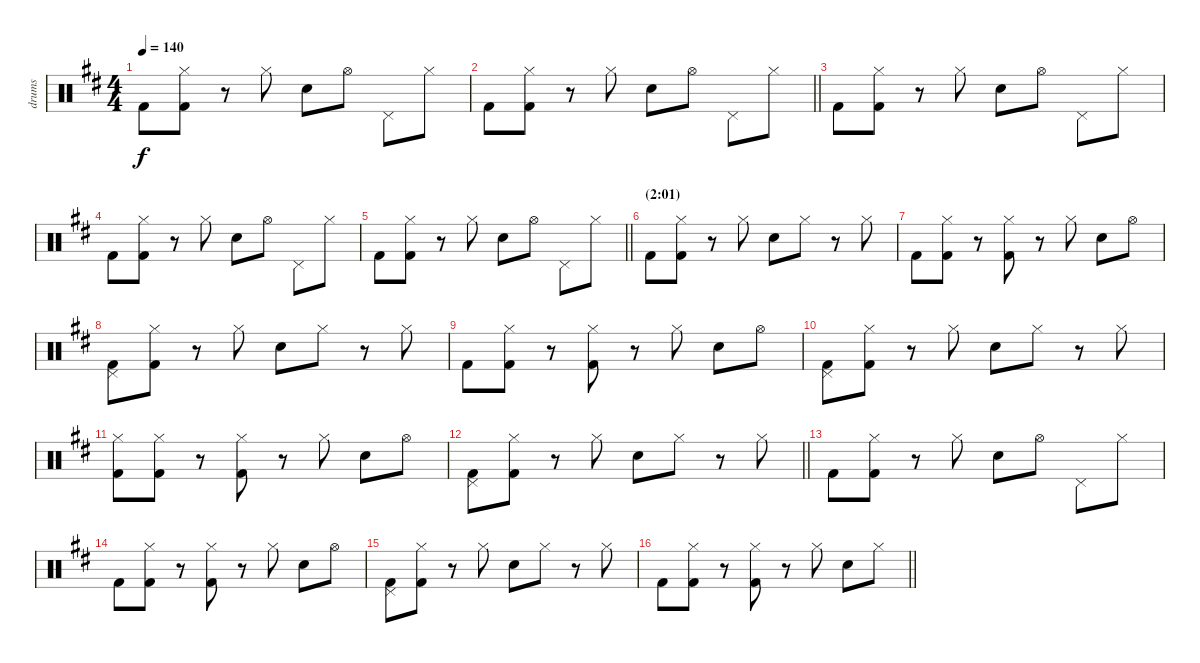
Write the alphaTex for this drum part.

\track ("drums" "drums") {instrument percussion}
\staff {score}
\articulation defaults
\ts (4 4)
\tempo 140
\clef neutral
\ks d "Kick (hit) 2".8{dy f}
("Hi-Hat (closed)" "Kick (hit) 2").8 r.8 "Hi-Hat (closed)".8 "Electric Snare (hit)".8 "Hi-Hat (open)".8 "Pedal Hi-Hat (hit)".8 "Hi-Hat (closed)".8 |
\barLineRight lightlight "Kick (hit) 2".8
("Hi-Hat (closed)" "Kick (hit) 2").8 r.8 "Hi-Hat (closed)".8 "Electric Snare (hit)".8 "Hi-Hat (open)".8 "Pedal Hi-Hat (hit)".8 "Hi-Hat (closed)".8 |
"Kick (hit) 2".8 ("Hi-Hat (closed)" "Kick (hit) 2").8 r.8 "Hi-Hat (closed)".8 "Electric Snare (hit)".8 "Hi-Hat (open)".8 "Pedal Hi-Hat (hit)".8 "Hi-Hat (closed)".8 |
"Kick (hit) 2".8 ("Hi-Hat (closed)" "Kick (hit) 2").8 r.8 "Hi-Hat (closed)".8 "Electric Snare (hit)".8 "Hi-Hat (open)".8 "Pedal Hi-Hat (hit)".8 "Hi-Hat (closed)".8 |
\barLineRight lightlight "Kick (hit) 2".8
("Hi-Hat (closed)" "Kick (hit) 2").8 r.8 "Hi-Hat (closed)".8 "Electric Snare (hit)".8 "Hi-Hat (open)".8 "Pedal Hi-Hat (hit)".8 "Hi-Hat (closed)".8 |
\section ("" "(2:01)")
"Kick (hit) 2".8 ("Hi-Hat (closed)" "Kick (hit) 2").8 r.8 "Hi-Hat (closed)".8 "Electric Snare (hit)".8 "Hi-Hat (closed)".8 r.8 "Hi-Hat (closed)".8 |
"Kick (hit) 2".8 ("Hi-Hat (closed)" "Kick (hit) 2").8 r.8 ("Hi-Hat (closed)" "Kick (hit) 2").8 r.8 "Hi-Hat (closed)".8 "Electric Snare (hit)".8 "Hi-Hat (open)".8 |
("Pedal Hi-Hat (hit)" "Kick (hit) 2").8 ("Hi-Hat (closed)" "Kick (hit) 2").8 r.8 "Hi-Hat (closed)".8 "Electric Snare (hit)".8 "Hi-Hat (closed)".8 r.8 "Hi-Hat (closed)".8 |
"Kick (hit) 2".8 ("Hi-Hat (closed)" "Kick (hit) 2").8 r.8 ("Hi-Hat (closed)" "Kick (hit) 2").8 r.8 "Hi-Hat (closed)".8 "Electric Snare (hit)".8 "Hi-Hat (open)".8 |
("Pedal Hi-Hat (hit)" "Kick (hit) 2").8 ("Hi-Hat (closed)" "Kick (hit) 2").8 r.8 "Hi-Hat (closed)".8 "Electric Snare (hit)".8 "Hi-Hat (closed)".8 r.8 "Hi-Hat (closed)".8 |
("Hi-Hat (closed)" "Kick (hit) 2").8 ("Hi-Hat (closed)" "Kick (hit) 2").8 r.8 ("Hi-Hat (closed)" "Kick (hit) 2").8 r.8 "Hi-Hat (closed)".8 "Electric Snare (hit)".8 "Hi-Hat (open)".8 |
\barLineRight lightlight
("Pedal Hi-Hat (hit)" "Kick (hit) 2").8 ("Hi-Hat (closed)" "Kick (hit) 2").8 r.8 "Hi-Hat (closed)".8 "Electric Snare (hit)".8 "Hi-Hat (closed)".8 r.8 "Hi-Hat (closed)".8 |
"Kick (hit) 2".8 ("Hi-Hat (closed)" "Kick (hit) 2").8 r.8 "Hi-Hat (closed)".8 "Electric Snare (hit)".8 "Hi-Hat (open)".8 "Pedal Hi-Hat (hit)".8 "Hi-Hat (closed)".8 |
"Kick (hit) 2".8 ("Hi-Hat (closed)" "Kick (hit) 2").8 r.8 ("Hi-Hat (closed)" "Kick (hit) 2").8 r.8 "Hi-Hat (closed)".8 "Electric Snare (hit)".8 "Hi-Hat (open)".8 |
("Pedal Hi-Hat (hit)" "Kick (hit) 2").8 ("Hi-Hat (closed)" "Kick (hit) 2").8 r.8 "Hi-Hat (closed)".8 "Electric Snare (hit)".8 "Hi-Hat (closed)".8 r.8 "Hi-Hat (closed)".8 |
\barLineRight lightlight "Kick (hit) 2".8
("Hi-Hat (closed)" "Kick (hit) 2").8 r.8 ("Hi-Hat (closed)" "Kick (hit) 2").8 r.8 "Hi-Hat (closed)".8 "Electric Snare (hit)".8 "Hi-Hat (closed)".8
